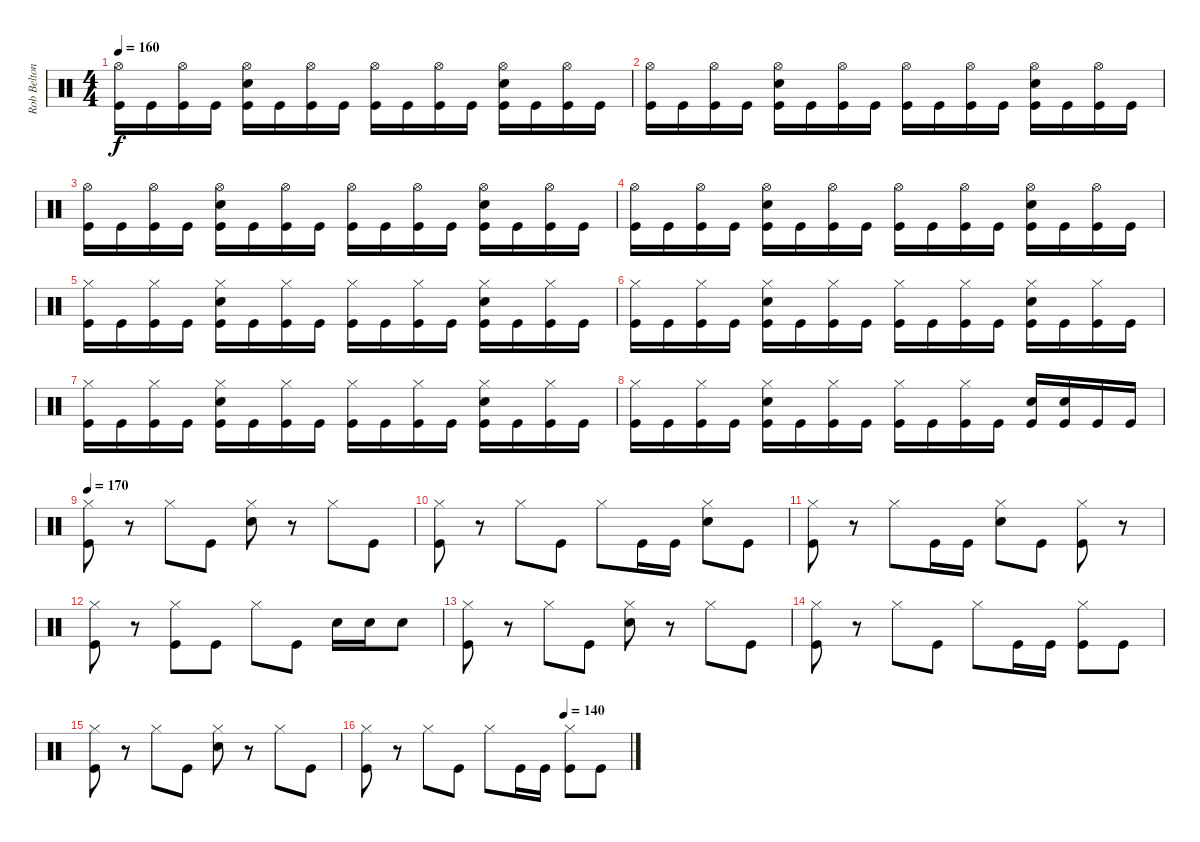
\track ("Rob Belton" "Rob Belton") {instrument percussion}
\staff {score}
\articulation defaults
\ts (4 4)
\tempo 160
\clef neutral
\ks c
("Kick (hit)" "Hi-Hat (open)").16{dy f} "Kick (hit)".16 ("Kick (hit)" "Hi-Hat (open)").16 "Kick (hit)".16 ("Kick (hit)" "Hi-Hat (open)" "Snare (hit) 2").16 "Kick (hit)".16 ("Kick (hit)" "Hi-Hat (open)").16 "Kick (hit)".16 ("Kick (hit)" "Hi-Hat (open)").16 "Kick (hit)".16 ("Kick (hit)" "Hi-Hat (open)").16 "Kick (hit)".16 ("Kick (hit)" "Hi-Hat (open)" "Snare (hit) 2").16 "Kick (hit)".16 ("Kick (hit)" "Hi-Hat (open)").16 "Kick (hit)".16 |
("Kick (hit)" "Hi-Hat (open)").16 "Kick (hit)".16 ("Kick (hit)" "Hi-Hat (open)").16 "Kick (hit)".16 ("Kick (hit)" "Hi-Hat (open)" "Snare (hit) 2").16 "Kick (hit)".16 ("Kick (hit)" "Hi-Hat (open)").16 "Kick (hit)".16 ("Kick (hit)" "Hi-Hat (open)").16 "Kick (hit)".16 ("Kick (hit)" "Hi-Hat (open)").16 "Kick (hit)".16 ("Kick (hit)" "Hi-Hat (open)" "Snare (hit) 2").16 "Kick (hit)".16 ("Kick (hit)" "Hi-Hat (open)").16 "Kick (hit)".16 |
("Kick (hit)" "Hi-Hat (open)").16 "Kick (hit)".16 ("Kick (hit)" "Hi-Hat (open)").16 "Kick (hit)".16 ("Kick (hit)" "Hi-Hat (open)" "Snare (hit) 2").16 "Kick (hit)".16 ("Kick (hit)" "Hi-Hat (open)").16 "Kick (hit)".16 ("Kick (hit)" "Hi-Hat (open)").16 "Kick (hit)".16 ("Kick (hit)" "Hi-Hat (open)").16 "Kick (hit)".16 ("Kick (hit)" "Hi-Hat (open)" "Snare (hit) 2").16 "Kick (hit)".16 ("Kick (hit)" "Hi-Hat (open)").16 "Kick (hit)".16 |
("Kick (hit)" "Hi-Hat (open)").16 "Kick (hit)".16 ("Kick (hit)" "Hi-Hat (open)").16 "Kick (hit)".16 ("Kick (hit)" "Hi-Hat (open)" "Snare (hit) 2").16 "Kick (hit)".16 ("Kick (hit)" "Hi-Hat (open)").16 "Kick (hit)".16 ("Kick (hit)" "Hi-Hat (open)").16 "Kick (hit)".16 ("Kick (hit)" "Hi-Hat (open)").16 "Kick (hit)".16 ("Kick (hit)" "Hi-Hat (open)" "Snare (hit) 2").16 "Kick (hit)".16 ("Kick (hit)" "Hi-Hat (open)").16 "Kick (hit)".16 |
("Kick (hit)" "Hi-Hat (closed)").16 "Kick (hit)".16 ("Kick (hit)" "Hi-Hat (closed)").16 "Kick (hit)".16 ("Kick (hit)" "Hi-Hat (closed)" "Snare (hit) 2").16 "Kick (hit)".16 ("Kick (hit)" "Hi-Hat (closed)").16 "Kick (hit)".16 ("Kick (hit)" "Hi-Hat (closed)").16 "Kick (hit)".16 ("Kick (hit)" "Hi-Hat (closed)").16 "Kick (hit)".16 ("Kick (hit)" "Hi-Hat (closed)" "Snare (hit) 2").16 "Kick (hit)".16 ("Kick (hit)" "Hi-Hat (closed)").16 "Kick (hit)".16 |
("Kick (hit)" "Hi-Hat (closed)").16 "Kick (hit)".16 ("Kick (hit)" "Hi-Hat (closed)").16 "Kick (hit)".16 ("Kick (hit)" "Hi-Hat (closed)" "Snare (hit) 2").16 "Kick (hit)".16 ("Kick (hit)" "Hi-Hat (closed)").16 "Kick (hit)".16 ("Kick (hit)" "Hi-Hat (closed)").16 "Kick (hit)".16 ("Kick (hit)" "Hi-Hat (closed)").16 "Kick (hit)".16 ("Kick (hit)" "Hi-Hat (closed)" "Snare (hit) 2").16 "Kick (hit)".16 ("Kick (hit)" "Hi-Hat (closed)").16 "Kick (hit)".16 |
("Kick (hit)" "Hi-Hat (closed)").16 "Kick (hit)".16 ("Kick (hit)" "Hi-Hat (closed)").16 "Kick (hit)".16 ("Kick (hit)" "Hi-Hat (closed)" "Snare (hit) 2").16 "Kick (hit)".16 ("Kick (hit)" "Hi-Hat (closed)").16 "Kick (hit)".16 ("Kick (hit)" "Hi-Hat (closed)").16 "Kick (hit)".16 ("Kick (hit)" "Hi-Hat (closed)").16 "Kick (hit)".16 ("Kick (hit)" "Hi-Hat (closed)" "Snare (hit) 2").16 "Kick (hit)".16 ("Kick (hit)" "Hi-Hat (closed)").16 "Kick (hit)".16 |
("Kick (hit)" "Hi-Hat (closed)").16 "Kick (hit)".16 ("Kick (hit)" "Hi-Hat (closed)").16 "Kick (hit)".16 ("Kick (hit)" "Hi-Hat (closed)" "Snare (hit) 2").16 "Kick (hit)".16 ("Kick (hit)" "Hi-Hat (closed)").16 "Kick (hit)".16 ("Kick (hit)" "Hi-Hat (closed)").16 "Kick (hit)".16 ("Kick (hit)" "Hi-Hat (closed)").16 "Kick (hit)".16 ("Kick (hit)" "Snare (hit) 2").16 ("Kick (hit)" "Snare (hit) 2").16 "Kick (hit)".16 "Kick (hit)".16 |
\tempo 170
("Kick (hit)" "Hi-Hat (closed)").8 r.8 "Hi-Hat (closed)".8 "Kick (hit)".8 ("Snare (hit) 2" "Hi-Hat (closed)").8 r.8 "Hi-Hat (closed)".8 "Kick (hit)".8 |
("Kick (hit)" "Hi-Hat (closed)").8 r.8 "Hi-Hat (closed)".8 "Kick (hit)".8 "Hi-Hat (closed)".8 "Kick (hit)".16 "Kick (hit)".16 ("Hi-Hat (closed)" "Snare (hit) 2").8 "Kick (hit)".8 |
("Kick (hit)" "Hi-Hat (closed)").8 r.8 "Hi-Hat (closed)".8 "Kick (hit)".16 "Kick (hit)".16 ("Snare (hit) 2" "Hi-Hat (closed)").8 "Kick (hit)".8 ("Kick (hit)" "Hi-Hat (closed)").8 r.8 |
("Kick (hit)" "Hi-Hat (closed)").8 r.8 ("Hi-Hat (closed)" "Kick (hit)").8 "Kick (hit)".8 "Hi-Hat (closed)".8 "Kick (hit)".8 "Snare (hit) 2".16 "Snare (hit) 2".16 "Snare (hit) 2".8 |
("Kick (hit)" "Hi-Hat (closed)").8 r.8 "Hi-Hat (closed)".8 "Kick (hit)".8 ("Snare (hit) 2" "Hi-Hat (closed)").8 r.8 "Hi-Hat (closed)".8 "Kick (hit)".8 |
("Kick (hit)" "Hi-Hat (closed)").8 r.8 "Hi-Hat (closed)".8 "Kick (hit)".8 "Hi-Hat (closed)".8 "Kick (hit)".16 "Kick (hit)".16 ("Hi-Hat (closed)" "Kick (hit)").8 "Kick (hit)".8 |
("Kick (hit)" "Hi-Hat (closed)").8 r.8 "Hi-Hat (closed)".8 "Kick (hit)".8 ("Snare (hit) 2" "Hi-Hat (closed)").8 r.8 "Hi-Hat (closed)".8 "Kick (hit)".8 |
\tempo (140 0.75)
("Kick (hit)" "Hi-Hat (closed)").8 r.8 "Hi-Hat (closed)".8 "Kick (hit)".8 "Hi-Hat (closed)".8 "Kick (hit)".16 "Kick (hit)".16 ("Hi-Hat (closed)" "Kick (hit)").8 "Kick (hit)".8
